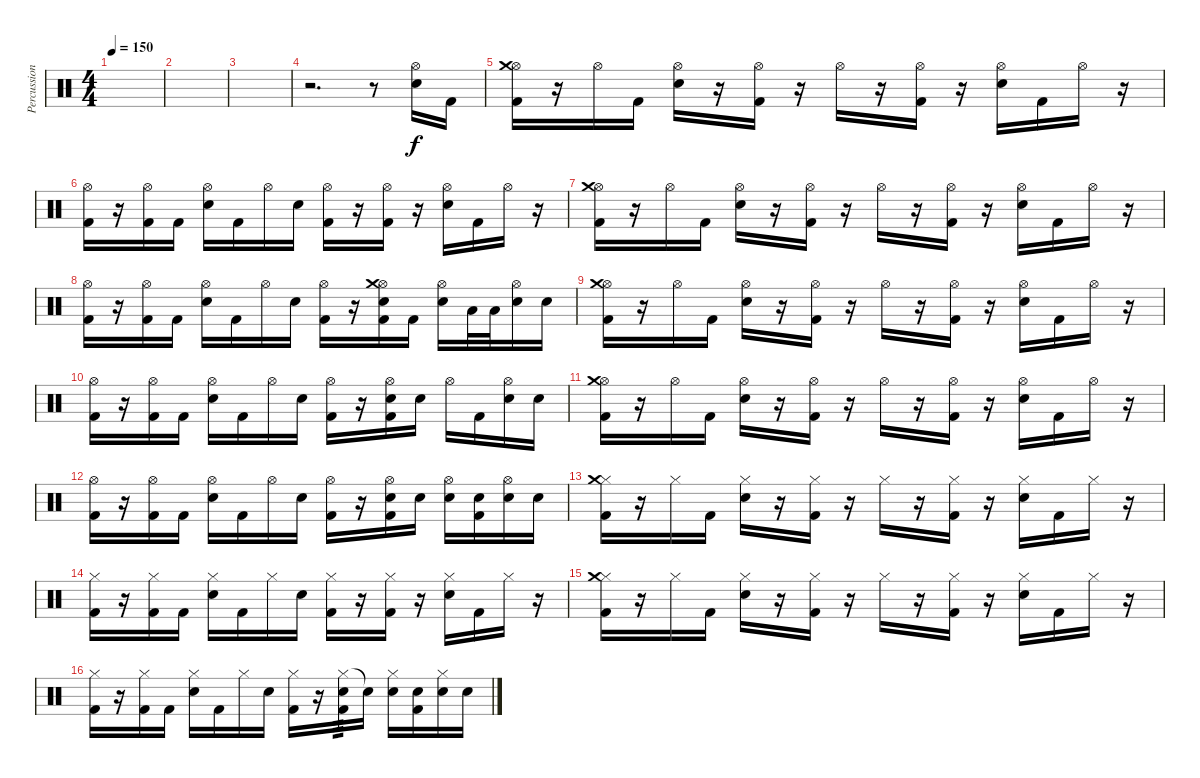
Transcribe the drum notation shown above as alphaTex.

\track ("Percussion" "Percussion") {instrument percussion}
\staff {score}
\articulation defaults
\ts (4 4)
\tempo 150
\clef neutral
\ks c
|
|
|
r.2{d} r.8 ("Hi-Hat (open)" "Electric Snare (hit)").16 "Kick (hit) 2".16 |
("Hi-Hat (open)" "Crash medium (hit)" "Kick (hit) 2").16 r.16 "Hi-Hat (open)".16 "Kick (hit) 2".16 ("Hi-Hat (open)" "Electric Snare (hit)").16 r.16 ("Hi-Hat (open)" "Kick (hit) 2").16 r.16 "Hi-Hat (open)".16 r.16 ("Hi-Hat (open)" "Kick (hit) 2").16 r.16 ("Hi-Hat (open)" "Electric Snare (hit)").16 "Kick (hit) 2".16 "Hi-Hat (open)".16 r.16 |
("Hi-Hat (open)" "Kick (hit) 2").16 r.16 ("Hi-Hat (open)" "Kick (hit) 2").16 "Kick (hit) 2".16 ("Hi-Hat (open)" "Electric Snare (hit)").16 "Kick (hit) 2".16 "Hi-Hat (open)".16 "Electric Snare (hit)".16 ("Hi-Hat (open)" "Kick (hit) 2").16 r.16 ("Hi-Hat (open)" "Kick (hit) 2").16 r.16 ("Hi-Hat (open)" "Electric Snare (hit)").16 "Kick (hit) 2".16 "Hi-Hat (open)".16 r.16 |
("Hi-Hat (open)" "Crash medium (hit)" "Kick (hit) 2").16 r.16 "Hi-Hat (open)".16 "Kick (hit) 2".16 ("Hi-Hat (open)" "Electric Snare (hit)").16 r.16 ("Hi-Hat (open)" "Kick (hit) 2").16 r.16 "Hi-Hat (open)".16 r.16 ("Hi-Hat (open)" "Kick (hit) 2").16 r.16 ("Hi-Hat (open)" "Electric Snare (hit)").16 "Kick (hit) 2".16 "Hi-Hat (open)".16 r.16 |
("Hi-Hat (open)" "Kick (hit) 2").16 r.16 ("Hi-Hat (open)" "Kick (hit) 2").16 "Kick (hit) 2".16 ("Hi-Hat (open)" "Electric Snare (hit)").16 "Kick (hit) 2".16 "Hi-Hat (open)".16 "Electric Snare (hit)".16 ("Hi-Hat (open)" "Kick (hit) 2").16 r.16 ("Hi-Hat (open)" "Crash medium (hit)" "Electric Snare (hit)" "Kick (hit) 2").16 "Kick (hit) 2".16 ("Hi-Hat (open)" "Electric Snare (hit)").16 "Low Tom (hit)".32 "Low Tom (hit)".32 ("Hi-Hat (open)" "Electric Snare (hit)").16 "Electric Snare (hit)".16 |
("Hi-Hat (open)" "Crash medium (hit)" "Kick (hit) 2").16 r.16 "Hi-Hat (open)".16 "Kick (hit) 2".16 ("Hi-Hat (open)" "Electric Snare (hit)").16 r.16 ("Hi-Hat (open)" "Kick (hit) 2").16 r.16 "Hi-Hat (open)".16 r.16 ("Hi-Hat (open)" "Kick (hit) 2").16 r.16 ("Hi-Hat (open)" "Electric Snare (hit)").16 "Kick (hit) 2".16 "Hi-Hat (open)".16 r.16 |
("Hi-Hat (open)" "Kick (hit) 2").16 r.16 ("Hi-Hat (open)" "Kick (hit) 2").16 "Kick (hit) 2".16 ("Hi-Hat (open)" "Electric Snare (hit)").16 "Kick (hit) 2".16 "Hi-Hat (open)".16 "Electric Snare (hit)".16 ("Hi-Hat (open)" "Kick (hit) 2").16 r.16 ("Hi-Hat (open)" "Electric Snare (hit)" "Kick (hit) 2").16 "Electric Snare (hit)".16 "Hi-Hat (open)".16 "Kick (hit) 2".16 ("Hi-Hat (open)" "Electric Snare (hit)").16 "Electric Snare (hit)".16 |
("Hi-Hat (open)" "Crash medium (hit)" "Kick (hit) 2").16 r.16 "Hi-Hat (open)".16 "Kick (hit) 2".16 ("Hi-Hat (open)" "Electric Snare (hit)").16 r.16 ("Hi-Hat (open)" "Kick (hit) 2").16 r.16 "Hi-Hat (open)".16 r.16 ("Hi-Hat (open)" "Kick (hit) 2").16 r.16 ("Hi-Hat (open)" "Electric Snare (hit)").16 "Kick (hit) 2".16 "Hi-Hat (open)".16 r.16 |
("Hi-Hat (open)" "Kick (hit) 2").16 r.16 ("Hi-Hat (open)" "Kick (hit) 2").16 "Kick (hit) 2".16 ("Hi-Hat (open)" "Electric Snare (hit)").16 "Kick (hit) 2".16 "Hi-Hat (open)".16 "Electric Snare (hit)".16 ("Hi-Hat (open)" "Kick (hit) 2").16 r.16 ("Hi-Hat (open)" "Electric Snare (hit)" "Kick (hit) 2").16 "Electric Snare (hit)".16 ("Hi-Hat (open)" "Electric Snare (hit)").16 ("Electric Snare (hit)" "Kick (hit) 2").16 ("Hi-Hat (open)" "Electric Snare (hit)").16 "Electric Snare (hit)".16 |
("Hi-Hat (closed)" "Crash medium (hit)" "Kick (hit) 2").16 r.16 "Hi-Hat (closed)".16 "Kick (hit) 2".16 ("Hi-Hat (closed)" "Electric Snare (hit)").16 r.16 ("Hi-Hat (closed)" "Kick (hit) 2").16 r.16 "Hi-Hat (closed)".16 r.16 ("Hi-Hat (closed)" "Kick (hit) 2").16 r.16 ("Hi-Hat (closed)" "Electric Snare (hit)").16 "Kick (hit) 2".16 "Hi-Hat (closed)".16 r.16 |
("Hi-Hat (closed)" "Kick (hit) 2").16 r.16 ("Hi-Hat (closed)" "Kick (hit) 2").16 "Kick (hit) 2".16 ("Hi-Hat (closed)" "Electric Snare (hit)").16 "Kick (hit) 2".16 "Hi-Hat (closed)".16 "Electric Snare (hit)".16 ("Hi-Hat (closed)" "Kick (hit) 2").16 r.16 ("Hi-Hat (closed)" "Kick (hit) 2").16 r.16 ("Hi-Hat (closed)" "Electric Snare (hit)").16 "Kick (hit) 2".16 "Hi-Hat (closed)".16 r.16 |
("Hi-Hat (closed)" "Crash medium (hit)" "Kick (hit) 2").16 r.16 "Hi-Hat (closed)".16 "Kick (hit) 2".16 ("Hi-Hat (closed)" "Electric Snare (hit)").16 r.16 ("Hi-Hat (closed)" "Kick (hit) 2").16 r.16 "Hi-Hat (closed)".16 r.16 ("Hi-Hat (closed)" "Kick (hit) 2").16 r.16 ("Hi-Hat (closed)" "Electric Snare (hit)").16 "Kick (hit) 2".16 "Hi-Hat (closed)".16 r.16 |
("Hi-Hat (closed)" "Kick (hit) 2").16 r.16 ("Hi-Hat (closed)" "Kick (hit) 2").16 "Kick (hit) 2".16 ("Hi-Hat (closed)" "Electric Snare (hit)").16 "Kick (hit) 2".16 "Hi-Hat (closed)".16 "Electric Snare (hit)".16 ("Hi-Hat (closed)" "Kick (hit) 2").16 r.16 ("Hi-Hat (closed)" "Electric Snare (hit)" "Kick (hit) 2").16{tp 3} "Snare (hit)"{t}.16 ("Hi-Hat (closed)" "Electric Snare (hit)").16 ("Electric Snare (hit)" "Kick (hit) 2").16 ("Hi-Hat (closed)" "Electric Snare (hit)").16 "Electric Snare (hit)".16
